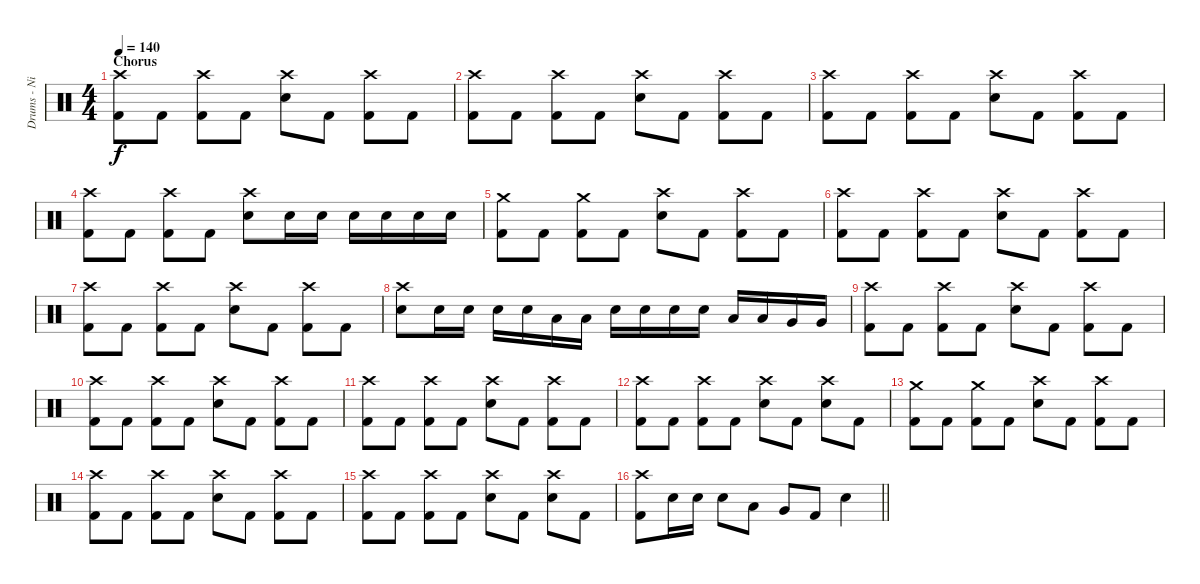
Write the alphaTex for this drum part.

\track ("Drums - Nick" "Drums - Ni") {instrument percussion}
\staff {score}
\articulation defaults
\ts (4 4)
\section ("" "Chorus")
\tempo 140
\clef neutral
\ks c
("Crash high (hit)" "Kick (hit) 2").8{dy f} "Kick (hit) 2".8 ("Crash high (hit)" "Kick (hit) 2").8 "Kick (hit) 2".8 ("Crash high (hit)" "Snare (hit) 2").8 "Kick (hit) 2".8 ("Crash high (hit)" "Kick (hit) 2").8 "Kick (hit) 2".8 |
("Crash high (hit)" "Kick (hit) 2").8 "Kick (hit) 2".8 ("Crash high (hit)" "Kick (hit) 2").8 "Kick (hit) 2".8 ("Crash high (hit)" "Snare (hit) 2").8 "Kick (hit) 2".8 ("Crash high (hit)" "Kick (hit) 2").8 "Kick (hit) 2".8 |
("Crash high (hit)" "Kick (hit) 2").8 "Kick (hit) 2".8 ("Crash high (hit)" "Kick (hit) 2").8 "Kick (hit) 2".8 ("Crash high (hit)" "Snare (hit) 2").8 "Kick (hit) 2".8 ("Crash high (hit)" "Kick (hit) 2").8 "Kick (hit) 2".8 |
("Crash high (hit)" "Kick (hit) 2").8 "Kick (hit) 2".8 ("Crash high (hit)" "Kick (hit) 2").8 "Kick (hit) 2".8 ("Crash high (hit)" "Snare (hit) 2").8 "Snare (hit) 2".16 "Snare (hit) 2".16 "Snare (hit) 2".16 "Snare (hit) 2".16 "Snare (hit) 2".16 "Snare (hit) 2".16 |
("Crash medium (hit)" "Kick (hit) 2").8 "Kick (hit) 2".8 ("Crash medium (hit)" "Kick (hit) 2").8 "Kick (hit) 2".8 ("Crash high (hit)" "Snare (hit) 2").8 "Kick (hit) 2".8 ("Crash high (hit)" "Kick (hit) 2").8 "Kick (hit) 2".8 |
("Crash high (hit)" "Kick (hit) 2").8 "Kick (hit) 2".8 ("Crash high (hit)" "Kick (hit) 2").8 "Kick (hit) 2".8 ("Crash high (hit)" "Snare (hit) 2").8 "Kick (hit) 2".8 ("Crash high (hit)" "Kick (hit) 2").8 "Kick (hit) 2".8 |
("Crash high (hit)" "Kick (hit) 2").8 "Kick (hit) 2".8 ("Crash high (hit)" "Kick (hit) 2").8 "Kick (hit) 2".8 ("Crash high (hit)" "Snare (hit) 2").8 "Kick (hit) 2".8 ("Crash high (hit)" "Kick (hit) 2").8 "Kick (hit) 2".8 |
("Snare (hit) 2" "Crash high (hit)").8 "Snare (hit) 2".16 "Snare (hit) 2".16 "Snare (hit) 2".16 "Snare (hit) 2".16 "Low Tom (hit)".16 "Low Tom (hit)".16 "Snare (hit) 2".16 "Snare (hit) 2".16 "Snare (hit) 2".16 "Snare (hit) 2".16 "Low Tom (hit)".16 "Low Tom (hit)".16 "Very Low Tom (hit)".16 "Very Low Tom (hit)".16 |
("Crash high (hit)" "Kick (hit) 2").8 "Kick (hit) 2".8 ("Crash high (hit)" "Kick (hit) 2").8 "Kick (hit) 2".8 ("Crash high (hit)" "Snare (hit) 2").8 "Kick (hit) 2".8 ("Crash high (hit)" "Kick (hit) 2").8 "Kick (hit) 2".8 |
("Crash high (hit)" "Kick (hit) 2").8 "Kick (hit) 2".8 ("Crash high (hit)" "Kick (hit) 2").8 "Kick (hit) 2".8 ("Crash high (hit)" "Snare (hit) 2").8 "Kick (hit) 2".8 ("Crash high (hit)" "Kick (hit) 2").8 "Kick (hit) 2".8 |
("Crash high (hit)" "Kick (hit) 2").8 "Kick (hit) 2".8 ("Crash high (hit)" "Kick (hit) 2").8 "Kick (hit) 2".8 ("Crash high (hit)" "Snare (hit) 2").8 "Kick (hit) 2".8 ("Crash high (hit)" "Kick (hit) 2").8 "Kick (hit) 2".8 |
("Crash high (hit)" "Kick (hit) 2").8 "Kick (hit) 2".8 ("Crash high (hit)" "Kick (hit) 2").8 "Kick (hit) 2".8 ("Crash high (hit)" "Snare (hit) 2").8 "Kick (hit) 2".8 ("Crash high (hit)" "Snare (hit) 2").8 "Kick (hit) 2".8 |
("Crash medium (hit)" "Kick (hit) 2").8 "Kick (hit) 2".8 ("Crash medium (hit)" "Kick (hit) 2").8 "Kick (hit) 2".8 ("Crash high (hit)" "Snare (hit) 2").8 "Kick (hit) 2".8 ("Crash high (hit)" "Kick (hit) 2").8 "Kick (hit) 2".8 |
("Crash high (hit)" "Kick (hit) 2").8 "Kick (hit) 2".8 ("Crash high (hit)" "Kick (hit) 2").8 "Kick (hit) 2".8 ("Crash high (hit)" "Snare (hit) 2").8 "Kick (hit) 2".8 ("Crash high (hit)" "Kick (hit) 2").8 "Kick (hit) 2".8 |
("Crash high (hit)" "Kick (hit) 2").8 "Kick (hit) 2".8 ("Crash high (hit)" "Kick (hit) 2").8 "Kick (hit) 2".8 ("Crash high (hit)" "Snare (hit) 2").8 "Kick (hit) 2".8 ("Crash high (hit)" "Snare (hit) 2").8 "Kick (hit) 2".8 |
\barLineRight lightlight
("Crash high (hit)" "Kick (hit) 2").8 "Snare (hit) 2".16 "Snare (hit) 2".16 "Snare (hit) 2".8 "Low Tom (hit)".8 "Very Low Tom (hit)".8 "Kick (hit) 2".8 "Snare (hit) 2".4
